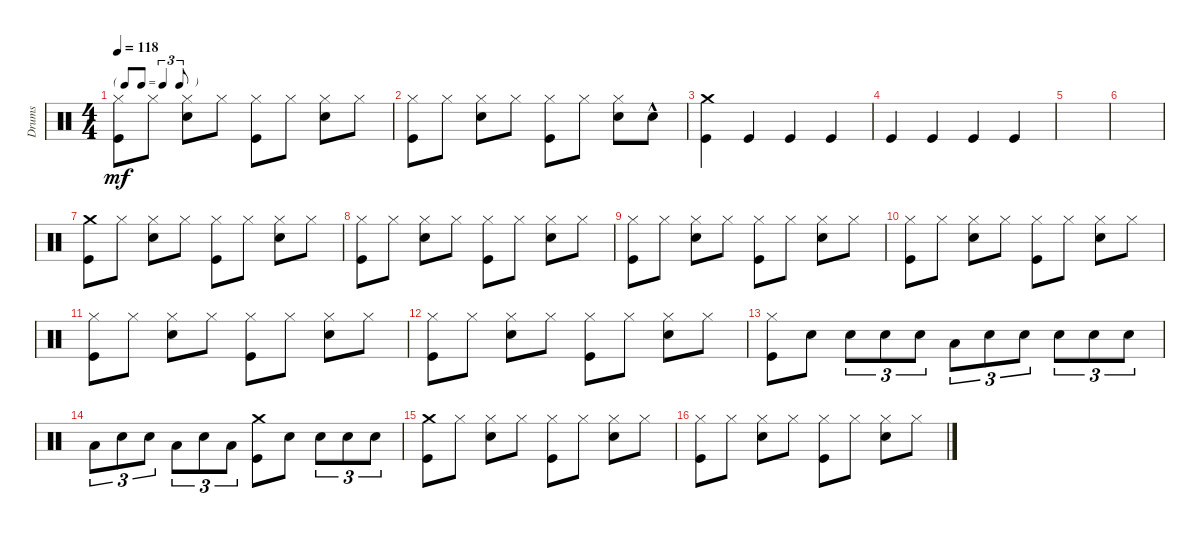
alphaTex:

\track ("Drums" "Drums") {instrument percussion}
\staff {score}
\articulation defaults
\ts (4 4)
\tf triplet8th
\tempo 118
\clef neutral
\ks c
("Hi-Hat (closed)" "Kick (hit)").8{dy mf} "Hi-Hat (closed)".8 ("Hi-Hat (closed)" "Snare (hit) 2").8 "Hi-Hat (closed)".8 ("Hi-Hat (closed)" "Kick (hit)").8 "Hi-Hat (closed)".8 ("Hi-Hat (closed)" "Snare (hit) 2").8 "Hi-Hat (closed)".8 |
("Hi-Hat (closed)" "Kick (hit)").8 "Hi-Hat (closed)".8 ("Hi-Hat (closed)" "Snare (hit) 2").8 "Hi-Hat (closed)".8 ("Hi-Hat (closed)" "Kick (hit)").8 "Hi-Hat (closed)".8 ("Hi-Hat (closed)" "Snare (hit) 2").8 "Snare (hit) 2"{hac}.8 |
("Crash medium (hit)" "Kick (hit)").4 "Kick (hit)".4 "Kick (hit)".4 "Kick (hit)".4 |
"Kick (hit)".4 "Kick (hit)".4 "Kick (hit)".4 "Kick (hit)".4 |
|
|
("Kick (hit)" "Crash medium (hit)").8 "Hi-Hat (closed)".8 ("Hi-Hat (closed)" "Snare (hit) 2").8 "Hi-Hat (closed)".8 ("Hi-Hat (closed)" "Kick (hit)").8 "Hi-Hat (closed)".8 ("Hi-Hat (closed)" "Snare (hit) 2").8 "Hi-Hat (closed)".8 |
("Hi-Hat (closed)" "Kick (hit)").8 "Hi-Hat (closed)".8 ("Hi-Hat (closed)" "Snare (hit) 2").8 "Hi-Hat (closed)".8 ("Hi-Hat (closed)" "Kick (hit)").8 "Hi-Hat (closed)".8 ("Hi-Hat (closed)" "Snare (hit) 2").8 "Hi-Hat (closed)".8 |
("Hi-Hat (closed)" "Kick (hit)").8 "Hi-Hat (closed)".8 ("Hi-Hat (closed)" "Snare (hit) 2").8 "Hi-Hat (closed)".8 ("Hi-Hat (closed)" "Kick (hit)").8 "Hi-Hat (closed)".8 ("Hi-Hat (closed)" "Snare (hit) 2").8 "Hi-Hat (closed)".8 |
("Hi-Hat (closed)" "Kick (hit)").8 "Hi-Hat (closed)".8 ("Hi-Hat (closed)" "Snare (hit) 2").8 "Hi-Hat (closed)".8 ("Hi-Hat (closed)" "Kick (hit)").8 "Hi-Hat (closed)".8 ("Hi-Hat (closed)" "Snare (hit) 2").8 "Hi-Hat (closed)".8 |
("Hi-Hat (closed)" "Kick (hit)").8 "Hi-Hat (closed)".8 ("Hi-Hat (closed)" "Snare (hit) 2").8 "Hi-Hat (closed)".8 ("Hi-Hat (closed)" "Kick (hit)").8 "Hi-Hat (closed)".8 ("Hi-Hat (closed)" "Snare (hit) 2").8 "Hi-Hat (closed)".8 |
("Hi-Hat (closed)" "Kick (hit)").8 "Hi-Hat (closed)".8 ("Hi-Hat (closed)" "Snare (hit) 2").8 "Hi-Hat (closed)".8 ("Hi-Hat (closed)" "Kick (hit)").8 "Hi-Hat (closed)".8 ("Hi-Hat (closed)" "Snare (hit) 2").8 "Hi-Hat (closed)".8 |
("Hi-Hat (closed)" "Kick (hit)").8 "Snare (hit) 2".8 "Snare (hit) 2".8{tu (3 2)} "Snare (hit) 2".8{tu (3 2)} "Snare (hit) 2".8{tu (3 2)} "Low Tom (hit)".8{tu (3 2)} "Snare (hit) 2".8{tu (3 2)} "Snare (hit) 2".8{tu (3 2)} "Snare (hit) 2".8{tu (3 2)} "Snare (hit) 2".8{tu (3 2)} "Snare (hit) 2".8{tu (3 2)} |
"Low Tom (hit)".8{tu (3 2)} "Snare (hit) 2".8{tu (3 2)} "Snare (hit) 2".8{tu (3 2)} "Low Tom (hit)".8{tu (3 2)} "Snare (hit) 2".8{tu (3 2)} "Low Tom (hit)".8{tu (3 2)} ("Crash medium (hit)" "Kick (hit)").8 "Snare (hit) 2".8 "Snare (hit) 2".8{tu (3 2)} "Snare (hit) 2".8{tu (3 2)} "Snare (hit) 2".8{tu (3 2)} |
("Kick (hit)" "Crash medium (hit)").8 "Hi-Hat (closed)".8 ("Hi-Hat (closed)" "Snare (hit) 2").8 "Hi-Hat (closed)".8 ("Hi-Hat (closed)" "Kick (hit)").8 "Hi-Hat (closed)".8 ("Hi-Hat (closed)" "Snare (hit) 2").8 "Hi-Hat (closed)".8 |
("Hi-Hat (closed)" "Kick (hit)").8 "Hi-Hat (closed)".8 ("Hi-Hat (closed)" "Snare (hit) 2").8 "Hi-Hat (closed)".8 ("Hi-Hat (closed)" "Kick (hit)").8 "Hi-Hat (closed)".8 ("Hi-Hat (closed)" "Snare (hit) 2").8 "Hi-Hat (closed)".8
